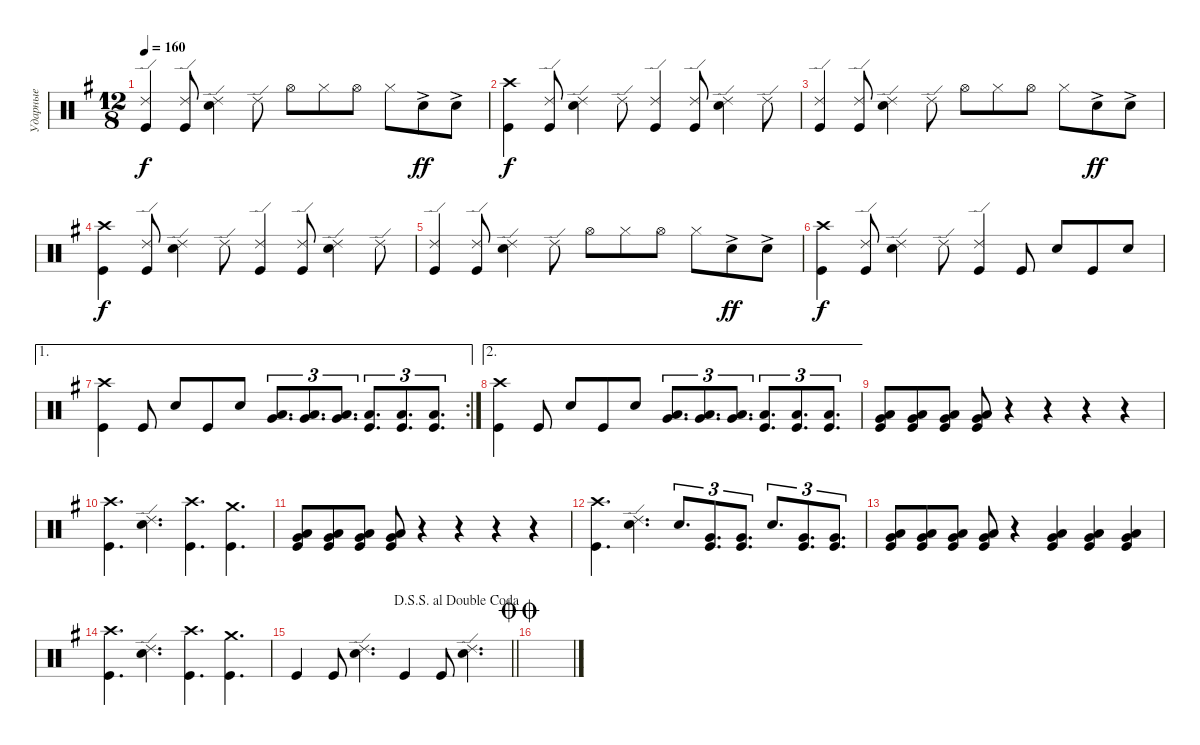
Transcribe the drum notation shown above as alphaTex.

\track ("Ударные" "Ударные") {instrument percussion}
\staff {score}
\articulation defaults
\ts (12 8)
\tempo 160
\clef neutral
\ks g
("Kick (hit)" "Ride (edge) 2").4{dy f} ("Kick (hit)" "Ride (edge) 2").8 ("Snare (hit) 2" "Ride (edge) 2").4 "Ride (edge) 2".8 "Hi-Hat (open)".8 "Hi-Hat (closed)".8 "Hi-Hat (open)".8 "Hi-Hat (closed)".8 "Snare (hit) 2"{ac}.8{dy ff} "Snare (hit) 2"{ac}.8 |
("Kick (hit)" "Crash high (hit)").4{dy f} ("Kick (hit)" "Ride (edge) 2").8 ("Snare (hit) 2" "Ride (edge) 2").4 "Ride (edge) 2".8 ("Kick (hit)" "Ride (edge) 2").4 ("Kick (hit)" "Ride (edge) 2").8 ("Snare (hit) 2" "Ride (edge) 2").4 "Ride (edge) 2".8 |
("Kick (hit)" "Ride (edge) 2").4 ("Kick (hit)" "Ride (edge) 2").8 ("Snare (hit) 2" "Ride (edge) 2").4 "Ride (edge) 2".8 "Hi-Hat (open)".8 "Hi-Hat (closed)".8 "Hi-Hat (open)".8 "Hi-Hat (closed)".8 "Snare (hit) 2"{ac}.8{dy ff} "Snare (hit) 2"{ac}.8 |
("Kick (hit)" "Crash high (hit)").4{dy f} ("Kick (hit)" "Ride (edge) 2").8 ("Snare (hit) 2" "Ride (edge) 2").4 "Ride (edge) 2".8 ("Kick (hit)" "Ride (edge) 2").4 ("Kick (hit)" "Ride (edge) 2").8 ("Snare (hit) 2" "Ride (edge) 2").4 "Ride (edge) 2".8 |
("Kick (hit)" "Ride (edge) 2").4 ("Kick (hit)" "Ride (edge) 2").8 ("Snare (hit) 2" "Ride (edge) 2").4 "Ride (edge) 2".8 "Hi-Hat (open)".8 "Hi-Hat (closed)".8 "Hi-Hat (open)".8 "Hi-Hat (closed)".8 "Snare (hit) 2"{ac}.8{dy ff} "Snare (hit) 2"{ac}.8 |
("Kick (hit)" "Crash high (hit)").4{dy f} ("Kick (hit)" "Ride (edge) 2").8 ("Snare (hit) 2" "Ride (edge) 2").4 "Ride (edge) 2".8 ("Kick (hit)" "Ride (edge) 2").4 "Kick (hit)".8 "Snare (hit) 2".8 "Kick (hit)".8 "Snare (hit) 2".8 |
\ae 1
\rc 2
("Kick (hit)" "Crash high (hit)").4 "Kick (hit)".8 "Snare (hit) 2".8 "Kick (hit)".8 "Snare (hit) 2".8 ("Very Low Tom (hit)" "Low Floor Tom (hit)").8{d tu (3 2)} ("Very Low Tom (hit)" "Low Floor Tom (hit)").8{d tu (3 2)} ("Very Low Tom (hit)" "Low Floor Tom (hit)").8{d tu (3 2)} ("Low Floor Tom (hit)" "Kick (hit)").8{d tu (3 2)} ("Low Floor Tom (hit)" "Kick (hit)").8{d tu (3 2)} ("Low Floor Tom (hit)" "Kick (hit)").8{d tu (3 2)} |
\ae 2
("Kick (hit)" "Crash high (hit)").4 "Kick (hit)".8 "Snare (hit) 2".8 "Kick (hit)".8 "Snare (hit) 2".8 ("Very Low Tom (hit)" "Low Floor Tom (hit)").8{d tu (3 2)} ("Very Low Tom (hit)" "Low Floor Tom (hit)").8{d tu (3 2)} ("Very Low Tom (hit)" "Low Floor Tom (hit)").8{d tu (3 2)} ("Low Floor Tom (hit)" "Kick (hit)").8{d tu (3 2)} ("Low Floor Tom (hit)" "Kick (hit)").8{d tu (3 2)} ("Low Floor Tom (hit)" "Kick (hit)").8{d tu (3 2)} |
("Kick (hit)" "Very Low Tom (hit)" "Low Floor Tom (hit)").8 ("Kick (hit)" "Very Low Tom (hit)" "Low Floor Tom (hit)").8 ("Kick (hit)" "Very Low Tom (hit)" "Low Floor Tom (hit)").8 ("Kick (hit)" "Very Low Tom (hit)" "Low Floor Tom (hit)").8 r.4 r.4 r.4 r.4 |
("Kick (hit)" "Crash high (hit)").4{d} ("Ride (edge) 2" "Snare (hit) 2").4{d} ("Kick (hit)" "Crash high (hit)").4{d} ("Kick (hit)" "Crash medium (hit)").4{d} |
("Kick (hit)" "Very Low Tom (hit)" "Low Floor Tom (hit)").8 ("Kick (hit)" "Very Low Tom (hit)" "Low Floor Tom (hit)").8 ("Kick (hit)" "Very Low Tom (hit)" "Low Floor Tom (hit)").8 ("Kick (hit)" "Very Low Tom (hit)" "Low Floor Tom (hit)").8 r.4 r.4 r.4 r.4 |
("Kick (hit)" "Crash high (hit)").4{d} ("Snare (hit) 2" "Ride (edge) 2").4{d} "Snare (hit) 2".8{d tu (3 2)} ("Kick (hit)" "Very Low Tom (hit)").8{d tu (3 2)} ("Kick (hit)" "Very Low Tom (hit)").8{d tu (3 2)} "Snare (hit) 2".8{d tu (3 2)} ("Kick (hit)" "Very Low Tom (hit)").8{d tu (3 2)} ("Kick (hit)" "Very Low Tom (hit)").8{d tu (3 2)} |
("Kick (hit)" "Very Low Tom (hit)" "Low Floor Tom (hit)").8 ("Kick (hit)" "Very Low Tom (hit)" "Low Floor Tom (hit)").8 ("Kick (hit)" "Very Low Tom (hit)" "Low Floor Tom (hit)").8 ("Kick (hit)" "Very Low Tom (hit)" "Low Floor Tom (hit)").8 r.4 ("Kick (hit)" "Very Low Tom (hit)" "Low Floor Tom (hit)").4 ("Kick (hit)" "Very Low Tom (hit)" "Low Floor Tom (hit)").4 ("Kick (hit)" "Very Low Tom (hit)" "Low Floor Tom (hit)").4 |
("Kick (hit)" "Crash high (hit)").4{d} ("Ride (edge) 2" "Snare (hit) 2").4{d} ("Kick (hit)" "Crash high (hit)").4{d} ("Kick (hit)" "Crash medium (hit)").4{d} |
\jump dalsegnosegnoaldoublecoda
\barLineRight lightlight "Kick (hit)".4 "Kick (hit)".8
("Snare (hit) 2" "Ride (edge) 2").4{d} "Kick (hit)".4 "Kick (hit)".8 ("Snare (hit) 2" "Ride (edge) 2").4{d} |
\jump doublecoda
